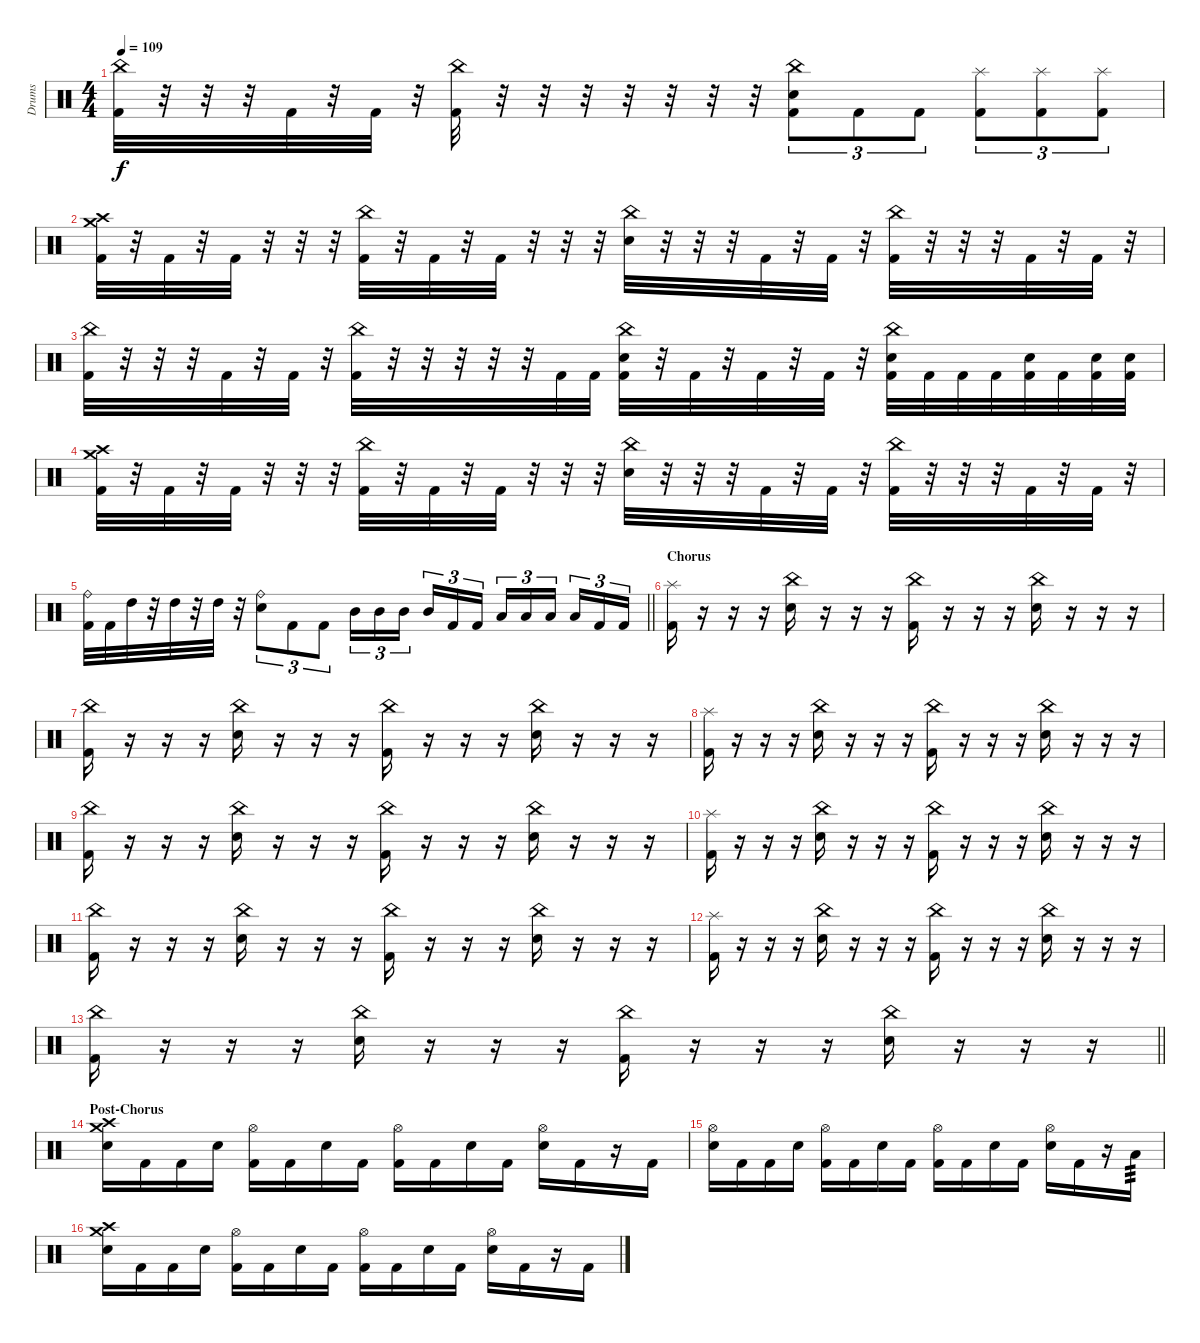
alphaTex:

\track ("Drums" "Drums") {instrument percussion}
\staff {score}
\articulation defaults
\ts (4 4)
\tempo 109
\clef neutral
\ks c
("China (hit)" "Kick (hit) 2").32{dy f} r.32 r.32 r.32 "Kick (hit) 2".32 r.32 "Kick (hit) 2".32 r.32 ("China (hit)" "Kick (hit) 2").32 r.32 r.32 r.32 r.32 r.32 r.32 r.32 ("China (hit)" "Snare (hit) 2" "Kick (hit) 2").8{tu (3 2)} "Kick (hit) 2".8{tu (3 2)} "Kick (hit) 2".8{tu (3 2)} ("Splash (hit)" "Kick (hit) 2").8{tu (3 2)} ("Splash (hit)" "Kick (hit) 2").8{tu (3 2)} ("Splash (hit)" "Kick (hit) 2").8{tu (3 2)} |
("Crash high (hit)" "Crash medium (hit)" "Kick (hit) 2").32 r.32 "Kick (hit) 2".32 r.32 "Kick (hit) 2".32 r.32 r.32 r.32 ("China (hit)" "Kick (hit) 2").32 r.32 "Kick (hit) 2".32 r.32 "Kick (hit) 2".32 r.32 r.32 r.32 ("China (hit)" "Snare (hit) 2").32 r.32 r.32 r.32 "Kick (hit) 2".32 r.32 "Kick (hit) 2".32 r.32 ("China (hit)" "Kick (hit) 2").32 r.32 r.32 r.32 "Kick (hit) 2".32 r.32 "Kick (hit) 2".32 r.32 |
("China (hit)" "Kick (hit) 2").32 r.32 r.32 r.32 "Kick (hit) 2".32 r.32 "Kick (hit) 2".32 r.32 ("China (hit)" "Kick (hit) 2").32 r.32 r.32 r.32 r.32 r.32 "Kick (hit) 2".32 "Kick (hit) 2".32 ("China (hit)" "Snare (hit) 2" "Kick (hit) 2").32 r.32 "Kick (hit) 2".32 r.32 "Kick (hit) 2".32 r.32 "Kick (hit) 2".32 r.32 ("China (hit)" "Snare (hit) 2" "Kick (hit) 2").32 "Kick (hit) 2".32 "Kick (hit) 2".32 "Kick (hit) 2".32 ("Snare (hit) 2" "Kick (hit) 2").32 "Kick (hit) 2".32 ("Snare (hit) 2" "Kick (hit) 2").32 ("Snare (hit) 2" "Kick (hit) 2").32 |
("Crash high (hit)" "Crash medium (hit)" "Kick (hit) 2").32 r.32 "Kick (hit) 2".32 r.32 "Kick (hit) 2".32 r.32 r.32 r.32 ("China (hit)" "Kick (hit) 2").32 r.32 "Kick (hit) 2".32 r.32 "Kick (hit) 2".32 r.32 r.32 r.32 ("China (hit)" "Snare (hit) 2").32 r.32 r.32 r.32 "Kick (hit) 2".32 r.32 "Kick (hit) 2".32 r.32 ("China (hit)" "Kick (hit) 2").32 r.32 r.32 r.32 "Kick (hit) 2".32 r.32 "Kick (hit) 2".32 r.32 |
\barLineRight lightlight
("Ride (bell)" "Kick (hit) 2").32 "Kick (hit) 2".32 "High Tom (hit)".32 r.32 "High Tom (hit)".32 r.32 "High Tom (hit)".32 r.32 ("Ride (bell)" "Snare (hit) 2").8{tu (3 2)} "Kick (hit) 2".8{tu (3 2)} "Kick (hit) 2".8{tu (3 2)} "Mid Tom (hit)".16{tu (3 2)} "Mid Tom (hit)".16{tu (3 2)} "Mid Tom (hit)".16{tu (3 2) beam splitsecondary} "Mid Tom (hit)".16{tu (3 2)} "Kick (hit) 2".16{tu (3 2)} "Kick (hit) 2".16{tu (3 2)} "Low Tom (hit)".16{tu (3 2)} "Low Tom (hit)".16{tu (3 2)} "Low Tom (hit)".16{tu (3 2) beam splitsecondary} "Low Tom (hit)".16{tu (3 2)} "Kick (hit) 2".16{tu (3 2)} "Kick (hit) 2".16{tu (3 2)} |
\section ("" "Chorus")
("Splash (hit)" "Kick (hit) 2").16 r.16 r.16 r.16 ("China (hit)" "Snare (hit) 2").16 r.16 r.16 r.16 ("China (hit)" "Kick (hit) 2").16 r.16 r.16 r.16 ("China (hit)" "Snare (hit) 2").16 r.16 r.16 r.16 |
("China (hit)" "Kick (hit) 2").16 r.16 r.16 r.16 ("China (hit)" "Snare (hit) 2").16 r.16 r.16 r.16 ("China (hit)" "Kick (hit) 2").16 r.16 r.16 r.16 ("China (hit)" "Snare (hit) 2").16 r.16 r.16 r.16 |
("Splash (hit)" "Kick (hit) 2").16 r.16 r.16 r.16 ("China (hit)" "Snare (hit) 2").16 r.16 r.16 r.16 ("China (hit)" "Kick (hit) 2").16 r.16 r.16 r.16 ("China (hit)" "Snare (hit) 2").16 r.16 r.16 r.16 |
("China (hit)" "Kick (hit) 2").16 r.16 r.16 r.16 ("China (hit)" "Snare (hit) 2").16 r.16 r.16 r.16 ("China (hit)" "Kick (hit) 2").16 r.16 r.16 r.16 ("China (hit)" "Snare (hit) 2").16 r.16 r.16 r.16 |
("Splash (hit)" "Kick (hit) 2").16 r.16 r.16 r.16 ("China (hit)" "Snare (hit) 2").16 r.16 r.16 r.16 ("China (hit)" "Kick (hit) 2").16 r.16 r.16 r.16 ("China (hit)" "Snare (hit) 2").16 r.16 r.16 r.16 |
("China (hit)" "Kick (hit) 2").16 r.16 r.16 r.16 ("China (hit)" "Snare (hit) 2").16 r.16 r.16 r.16 ("China (hit)" "Kick (hit) 2").16 r.16 r.16 r.16 ("China (hit)" "Snare (hit) 2").16 r.16 r.16 r.16 |
("Splash (hit)" "Kick (hit) 2").16 r.16 r.16 r.16 ("China (hit)" "Snare (hit) 2").16 r.16 r.16 r.16 ("China (hit)" "Kick (hit) 2").16 r.16 r.16 r.16 ("China (hit)" "Snare (hit) 2").16 r.16 r.16 r.16 |
\barLineRight lightlight
("China (hit)" "Kick (hit) 2").16 r.16 r.16 r.16 ("China (hit)" "Snare (hit) 2").16 r.16 r.16 r.16 ("China (hit)" "Kick (hit) 2").16 r.16 r.16 r.16 ("China (hit)" "Snare (hit) 2").16 r.16 r.16 r.16 |
\section ("" "Post-Chorus")
("Crash medium (hit)" "Crash high (hit)" "Snare (hit) 2").16 "Kick (hit) 2".16 "Kick (hit) 2".16 "Snare (hit) 2".16 ("Hi-Hat (open)" "Kick (hit) 2").16 "Kick (hit) 2".16 "Snare (hit) 2".16 "Kick (hit) 2".16 ("Hi-Hat (open)" "Kick (hit) 2").16 "Kick (hit) 2".16 "Snare (hit) 2".16 "Kick (hit) 2".16 ("Hi-Hat (open)" "Snare (hit) 2").16 "Kick (hit) 2".16 r.16 "Kick (hit) 2".16 |
("Hi-Hat (open)" "Snare (hit) 2").16 "Kick (hit) 2".16 "Kick (hit) 2".16 "Snare (hit) 2".16 ("Hi-Hat (open)" "Kick (hit) 2").16 "Kick (hit) 2".16 "Snare (hit) 2".16 "Kick (hit) 2".16 ("Hi-Hat (open)" "Kick (hit) 2").16 "Kick (hit) 2".16 "Snare (hit) 2".16 "Kick (hit) 2".16 ("Hi-Hat (open)" "Snare (hit) 2").16 "Kick (hit) 2".16 r.16 "Low Tom (hit)".16{tp 3} |
("Crash medium (hit)" "Crash high (hit)" "Snare (hit) 2").16 "Kick (hit) 2".16 "Kick (hit) 2".16 "Snare (hit) 2".16 ("Hi-Hat (open)" "Kick (hit) 2").16 "Kick (hit) 2".16 "Snare (hit) 2".16 "Kick (hit) 2".16 ("Hi-Hat (open)" "Kick (hit) 2").16 "Kick (hit) 2".16 "Snare (hit) 2".16 "Kick (hit) 2".16 ("Hi-Hat (open)" "Snare (hit) 2").16 "Kick (hit) 2".16 r.16 "Kick (hit) 2".16
